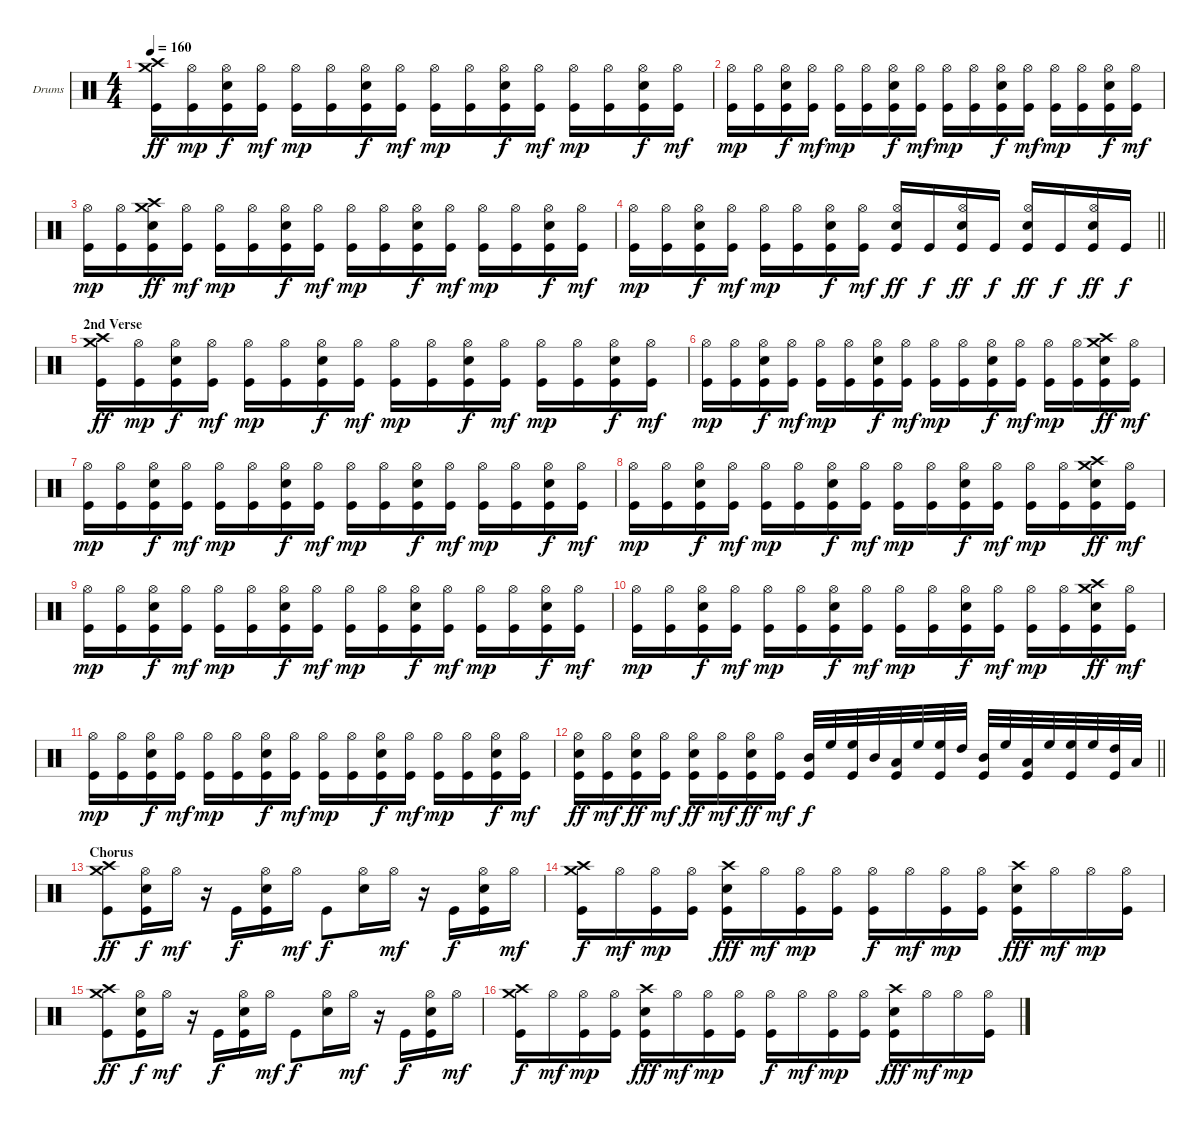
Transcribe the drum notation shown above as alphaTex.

\bracketExtendMode groupsimilarinstruments
\firstSystemTrackNameOrientation horizontal
\otherSystemsTrackNameOrientation horizontal
\track ("Drumkit" "Drums") {instrument percussion}
\staff {score}
\articulation defaults
\ts (4 4)
\tempo 160
\clef neutral
\ks c
("Crash medium (hit)" "Crash high (hit)" "Kick (hit)").16{dy ff} ("Hi-Hat (open)" "Kick (hit)").16{dy mp} ("Hi-Hat (open)" "Snare (hit) 2" "Kick (hit)").16{dy f} ("Hi-Hat (open)" "Kick (hit)").16{dy mf} ("Hi-Hat (open)" "Kick (hit)").16{dy mp} ("Hi-Hat (open)" "Kick (hit)").16 ("Hi-Hat (open)" "Snare (hit) 2" "Kick (hit)").16{dy f} ("Hi-Hat (open)" "Kick (hit)").16{dy mf} ("Hi-Hat (open)" "Kick (hit)").16{dy mp} ("Hi-Hat (open)" "Kick (hit)").16 ("Hi-Hat (open)" "Snare (hit) 2" "Kick (hit)").16{dy f} ("Hi-Hat (open)" "Kick (hit)").16{dy mf} ("Hi-Hat (open)" "Kick (hit)").16{dy mp} ("Hi-Hat (open)" "Kick (hit)").16 ("Hi-Hat (open)" "Snare (hit) 2" "Kick (hit)").16{dy f} ("Hi-Hat (open)" "Kick (hit)").16{dy mf} |
("Hi-Hat (open)" "Kick (hit)").16{dy mp} ("Hi-Hat (open)" "Kick (hit)").16 ("Hi-Hat (open)" "Snare (hit) 2" "Kick (hit)").16{dy f} ("Hi-Hat (open)" "Kick (hit)").16{dy mf} ("Hi-Hat (open)" "Kick (hit)").16{dy mp} ("Hi-Hat (open)" "Kick (hit)").16 ("Hi-Hat (open)" "Snare (hit) 2" "Kick (hit)").16{dy f} ("Hi-Hat (open)" "Kick (hit)").16{dy mf} ("Hi-Hat (open)" "Kick (hit)").16{dy mp} ("Hi-Hat (open)" "Kick (hit)").16 ("Hi-Hat (open)" "Snare (hit) 2" "Kick (hit)").16{dy f} ("Hi-Hat (open)" "Kick (hit)").16{dy mf} ("Hi-Hat (open)" "Kick (hit)").16{dy mp} ("Hi-Hat (open)" "Kick (hit)").16 ("Hi-Hat (open)" "Snare (hit) 2" "Kick (hit)").16{dy f} ("Hi-Hat (open)" "Kick (hit)").16{dy mf} |
("Hi-Hat (open)" "Kick (hit)").16{dy mp} ("Hi-Hat (open)" "Kick (hit)").16 ("Crash medium (hit)" "Crash high (hit)" "Snare (hit) 2" "Kick (hit)").16{dy ff} ("Hi-Hat (open)" "Kick (hit)").16{dy mf} ("Hi-Hat (open)" "Kick (hit)").16{dy mp} ("Hi-Hat (open)" "Kick (hit)").16 ("Hi-Hat (open)" "Snare (hit) 2" "Kick (hit)").16{dy f} ("Hi-Hat (open)" "Kick (hit)").16{dy mf} ("Hi-Hat (open)" "Kick (hit)").16{dy mp} ("Hi-Hat (open)" "Kick (hit)").16 ("Hi-Hat (open)" "Snare (hit) 2" "Kick (hit)").16{dy f} ("Hi-Hat (open)" "Kick (hit)").16{dy mf} ("Hi-Hat (open)" "Kick (hit)").16{dy mp} ("Hi-Hat (open)" "Kick (hit)").16 ("Hi-Hat (open)" "Snare (hit) 2" "Kick (hit)").16{dy f} ("Hi-Hat (open)" "Kick (hit)").16{dy mf} |
\barLineRight lightlight
("Hi-Hat (open)" "Kick (hit)").16{dy mp} ("Hi-Hat (open)" "Kick (hit)").16 ("Hi-Hat (open)" "Snare (hit) 2" "Kick (hit)").16{dy f} ("Hi-Hat (open)" "Kick (hit)").16{dy mf} ("Hi-Hat (open)" "Kick (hit)").16{dy mp} ("Hi-Hat (open)" "Kick (hit)").16 ("Hi-Hat (open)" "Snare (hit) 2" "Kick (hit)").16{dy f} ("Hi-Hat (open)" "Kick (hit)").16{dy mf} ("Hi-Hat (open)" "Snare (hit) 2" "Kick (hit)").16{dy ff} "Kick (hit)".16{dy f} ("Hi-Hat (open)" "Snare (hit) 2" "Kick (hit)").16{dy ff} "Kick (hit)".16{dy f} ("Hi-Hat (open)" "Snare (hit) 2" "Kick (hit)").16{dy ff} "Kick (hit)".16{dy f} ("Hi-Hat (open)" "Snare (hit) 2" "Kick (hit)").16{dy ff} "Kick (hit)".16{dy f} |
\section ("" "2nd Verse")
("Crash medium (hit)" "Crash high (hit)" "Kick (hit)").16{dy ff} ("Hi-Hat (open)" "Kick (hit)").16{dy mp} ("Hi-Hat (open)" "Snare (hit) 2" "Kick (hit)").16{dy f} ("Hi-Hat (open)" "Kick (hit)").16{dy mf} ("Hi-Hat (open)" "Kick (hit)").16{dy mp} ("Hi-Hat (open)" "Kick (hit)").16 ("Hi-Hat (open)" "Snare (hit) 2" "Kick (hit)").16{dy f} ("Hi-Hat (open)" "Kick (hit)").16{dy mf} ("Hi-Hat (open)" "Kick (hit)").16{dy mp} ("Hi-Hat (open)" "Kick (hit)").16 ("Hi-Hat (open)" "Snare (hit) 2" "Kick (hit)").16{dy f} ("Hi-Hat (open)" "Kick (hit)").16{dy mf} ("Hi-Hat (open)" "Kick (hit)").16{dy mp} ("Hi-Hat (open)" "Kick (hit)").16 ("Hi-Hat (open)" "Snare (hit) 2" "Kick (hit)").16{dy f} ("Hi-Hat (open)" "Kick (hit)").16{dy mf} |
("Hi-Hat (open)" "Kick (hit)").16{dy mp} ("Hi-Hat (open)" "Kick (hit)").16 ("Hi-Hat (open)" "Snare (hit) 2" "Kick (hit)").16{dy f} ("Hi-Hat (open)" "Kick (hit)").16{dy mf} ("Hi-Hat (open)" "Kick (hit)").16{dy mp} ("Hi-Hat (open)" "Kick (hit)").16 ("Hi-Hat (open)" "Snare (hit) 2" "Kick (hit)").16{dy f} ("Hi-Hat (open)" "Kick (hit)").16{dy mf} ("Hi-Hat (open)" "Kick (hit)").16{dy mp} ("Hi-Hat (open)" "Kick (hit)").16 ("Hi-Hat (open)" "Snare (hit) 2" "Kick (hit)").16{dy f} ("Hi-Hat (open)" "Kick (hit)").16{dy mf} ("Hi-Hat (open)" "Kick (hit)").16{dy mp} ("Hi-Hat (open)" "Kick (hit)").16 ("Crash medium (hit)" "Crash high (hit)" "Snare (hit) 2" "Kick (hit)").16{dy ff} ("Hi-Hat (open)" "Kick (hit)").16{dy mf} |
("Hi-Hat (open)" "Kick (hit)").16{dy mp} ("Hi-Hat (open)" "Kick (hit)").16 ("Hi-Hat (open)" "Snare (hit) 2" "Kick (hit)").16{dy f} ("Hi-Hat (open)" "Kick (hit)").16{dy mf} ("Hi-Hat (open)" "Kick (hit)").16{dy mp} ("Hi-Hat (open)" "Kick (hit)").16 ("Hi-Hat (open)" "Snare (hit) 2" "Kick (hit)").16{dy f} ("Hi-Hat (open)" "Kick (hit)").16{dy mf} ("Hi-Hat (open)" "Kick (hit)").16{dy mp} ("Hi-Hat (open)" "Kick (hit)").16 ("Hi-Hat (open)" "Snare (hit) 2" "Kick (hit)").16{dy f} ("Hi-Hat (open)" "Kick (hit)").16{dy mf} ("Hi-Hat (open)" "Kick (hit)").16{dy mp} ("Hi-Hat (open)" "Kick (hit)").16 ("Hi-Hat (open)" "Snare (hit) 2" "Kick (hit)").16{dy f} ("Hi-Hat (open)" "Kick (hit)").16{dy mf} |
("Hi-Hat (open)" "Kick (hit)").16{dy mp} ("Hi-Hat (open)" "Kick (hit)").16 ("Hi-Hat (open)" "Snare (hit) 2" "Kick (hit)").16{dy f} ("Hi-Hat (open)" "Kick (hit)").16{dy mf} ("Hi-Hat (open)" "Kick (hit)").16{dy mp} ("Hi-Hat (open)" "Kick (hit)").16 ("Hi-Hat (open)" "Snare (hit) 2" "Kick (hit)").16{dy f} ("Hi-Hat (open)" "Kick (hit)").16{dy mf} ("Hi-Hat (open)" "Kick (hit)").16{dy mp} ("Hi-Hat (open)" "Kick (hit)").16 ("Hi-Hat (open)" "Snare (hit) 2" "Kick (hit)").16{dy f} ("Hi-Hat (open)" "Kick (hit)").16{dy mf} ("Hi-Hat (open)" "Kick (hit)").16{dy mp} ("Hi-Hat (open)" "Kick (hit)").16 ("Crash medium (hit)" "Crash high (hit)" "Snare (hit) 2" "Kick (hit)").16{dy ff} ("Hi-Hat (open)" "Kick (hit)").16{dy mf} |
("Hi-Hat (open)" "Kick (hit)").16{dy mp} ("Hi-Hat (open)" "Kick (hit)").16 ("Hi-Hat (open)" "Snare (hit) 2" "Kick (hit)").16{dy f} ("Hi-Hat (open)" "Kick (hit)").16{dy mf} ("Hi-Hat (open)" "Kick (hit)").16{dy mp} ("Hi-Hat (open)" "Kick (hit)").16 ("Hi-Hat (open)" "Snare (hit) 2" "Kick (hit)").16{dy f} ("Hi-Hat (open)" "Kick (hit)").16{dy mf} ("Hi-Hat (open)" "Kick (hit)").16{dy mp} ("Hi-Hat (open)" "Kick (hit)").16 ("Hi-Hat (open)" "Snare (hit) 2" "Kick (hit)").16{dy f} ("Hi-Hat (open)" "Kick (hit)").16{dy mf} ("Hi-Hat (open)" "Kick (hit)").16{dy mp} ("Hi-Hat (open)" "Kick (hit)").16 ("Hi-Hat (open)" "Snare (hit) 2" "Kick (hit)").16{dy f} ("Hi-Hat (open)" "Kick (hit)").16{dy mf} |
("Hi-Hat (open)" "Kick (hit)").16{dy mp} ("Hi-Hat (open)" "Kick (hit)").16 ("Hi-Hat (open)" "Snare (hit) 2" "Kick (hit)").16{dy f} ("Hi-Hat (open)" "Kick (hit)").16{dy mf} ("Hi-Hat (open)" "Kick (hit)").16{dy mp} ("Hi-Hat (open)" "Kick (hit)").16 ("Hi-Hat (open)" "Snare (hit) 2" "Kick (hit)").16{dy f} ("Hi-Hat (open)" "Kick (hit)").16{dy mf} ("Hi-Hat (open)" "Kick (hit)").16{dy mp} ("Hi-Hat (open)" "Kick (hit)").16 ("Hi-Hat (open)" "Snare (hit) 2" "Kick (hit)").16{dy f} ("Hi-Hat (open)" "Kick (hit)").16{dy mf} ("Hi-Hat (open)" "Kick (hit)").16{dy mp} ("Hi-Hat (open)" "Kick (hit)").16 ("Crash medium (hit)" "Crash high (hit)" "Snare (hit) 2" "Kick (hit)").16{dy ff} ("Hi-Hat (open)" "Kick (hit)").16{dy mf} |
("Hi-Hat (open)" "Kick (hit)").16{dy mp} ("Hi-Hat (open)" "Kick (hit)").16 ("Hi-Hat (open)" "Snare (hit) 2" "Kick (hit)").16{dy f} ("Hi-Hat (open)" "Kick (hit)").16{dy mf} ("Hi-Hat (open)" "Kick (hit)").16{dy mp} ("Hi-Hat (open)" "Kick (hit)").16 ("Hi-Hat (open)" "Snare (hit) 2" "Kick (hit)").16{dy f} ("Hi-Hat (open)" "Kick (hit)").16{dy mf} ("Hi-Hat (open)" "Kick (hit)").16{dy mp} ("Hi-Hat (open)" "Kick (hit)").16 ("Hi-Hat (open)" "Snare (hit) 2" "Kick (hit)").16{dy f} ("Hi-Hat (open)" "Kick (hit)").16{dy mf} ("Hi-Hat (open)" "Kick (hit)").16{dy mp} ("Hi-Hat (open)" "Kick (hit)").16 ("Hi-Hat (open)" "Snare (hit) 2" "Kick (hit)").16{dy f} ("Hi-Hat (open)" "Kick (hit)").16{dy mf} |
\barLineRight lightlight
("Hi-Hat (open)" "Snare (hit) 2" "Kick (hit)").16{dy ff} ("Hi-Hat (open)" "Kick (hit)").16{dy mf} ("Hi-Hat (open)" "Snare (hit) 2" "Kick (hit)").16{dy ff} ("Hi-Hat (open)" "Kick (hit)").16{dy mf} ("Hi-Hat (open)" "Snare (hit) 2" "Kick (hit)").16{dy ff} ("Hi-Hat (open)" "Kick (hit)").16{dy mf} ("Hi-Hat (open)" "Snare (hit) 2" "Kick (hit)").16{dy ff} ("Hi-Hat (open)" "Kick (hit)").16{dy mf} ("Mid Tom (hit)" "Kick (hit)").32{dy f} "High Floor Tom (hit)".32 ("High Floor Tom (hit)" "Kick (hit)").32 "Mid Tom (hit)".32 ("Low Tom (hit)" "Kick (hit)").32 "High Floor Tom (hit)".32 ("High Floor Tom (hit)" "Kick (hit)").32 "High Tom (hit)".32 ("Mid Tom (hit)" "Kick (hit)").32 "High Floor Tom (hit)".32 ("Low Tom (hit)" "Kick (hit)").32 "High Floor Tom (hit)".32 ("High Floor Tom (hit)" "Kick (hit)").32 "High Floor Tom (hit)".32 ("High Tom (hit)" "Kick (hit)").32 "Low Tom (hit)".32 |
\section ("" "Chorus")
("Crash medium (hit)" "Crash high (hit)" "Kick (hit)").8{dy ff} ("Hi-Hat (open)" "Snare (hit) 2" "Kick (hit)").16{dy f} "Hi-Hat (open)".16{dy mf} r.16 "Kick (hit)".16{dy f} ("Hi-Hat (open)" "Snare (hit) 2" "Kick (hit)").16 "Hi-Hat (open)".16{dy mf} "Kick (hit)".8{dy f} ("Hi-Hat (open)" "Snare (hit) 2").16 "Hi-Hat (open)".16{dy mf} r.16 "Kick (hit)".16{dy f} ("Hi-Hat (open)" "Snare (hit) 2" "Kick (hit)").16 "Hi-Hat (open)".16{dy mf} |
("Crash medium (hit)" "Crash high (hit)" "Kick (hit)").16{dy f} "Hi-Hat (open)".16{dy mf} ("Hi-Hat (open)" "Kick (hit)").16{dy mp} ("Hi-Hat (open)" "Kick (hit)").16 ("Crash high (hit)" "Snare (hit) 2" "Kick (hit)").16{dy fff} "Hi-Hat (open)".16{dy mf} ("Hi-Hat (open)" "Kick (hit)").16{dy mp} ("Hi-Hat (open)" "Kick (hit)").16 ("Hi-Hat (open)" "Kick (hit)").16{dy f} "Hi-Hat (open)".16{dy mf} ("Hi-Hat (open)" "Kick (hit)").16{dy mp} ("Hi-Hat (open)" "Kick (hit)").16 ("Crash high (hit)" "Snare (hit) 2" "Kick (hit)").16{dy fff} "Hi-Hat (open)".16{dy mf} "Hi-Hat (open)".16{dy mp} ("Hi-Hat (open)" "Kick (hit)").16 |
("Crash medium (hit)" "Crash high (hit)" "Kick (hit)").8{dy ff} ("Hi-Hat (open)" "Snare (hit) 2" "Kick (hit)").16{dy f} "Hi-Hat (open)".16{dy mf} r.16 "Kick (hit)".16{dy f} ("Hi-Hat (open)" "Snare (hit) 2" "Kick (hit)").16 "Hi-Hat (open)".16{dy mf} "Kick (hit)".8{dy f} ("Hi-Hat (open)" "Snare (hit) 2").16 "Hi-Hat (open)".16{dy mf} r.16 "Kick (hit)".16{dy f} ("Hi-Hat (open)" "Snare (hit) 2" "Kick (hit)").16 "Hi-Hat (open)".16{dy mf} |
("Crash medium (hit)" "Crash high (hit)" "Kick (hit)").16{dy f} "Hi-Hat (open)".16{dy mf} ("Hi-Hat (open)" "Kick (hit)").16{dy mp} ("Hi-Hat (open)" "Kick (hit)").16 ("Crash high (hit)" "Snare (hit) 2" "Kick (hit)").16{dy fff} "Hi-Hat (open)".16{dy mf} ("Hi-Hat (open)" "Kick (hit)").16{dy mp} ("Hi-Hat (open)" "Kick (hit)").16 ("Hi-Hat (open)" "Kick (hit)").16{dy f} "Hi-Hat (open)".16{dy mf} ("Hi-Hat (open)" "Kick (hit)").16{dy mp} ("Hi-Hat (open)" "Kick (hit)").16 ("Crash high (hit)" "Snare (hit) 2" "Kick (hit)").16{dy fff} "Hi-Hat (open)".16{dy mf} "Hi-Hat (open)".16{dy mp} ("Hi-Hat (open)" "Kick (hit)").16
